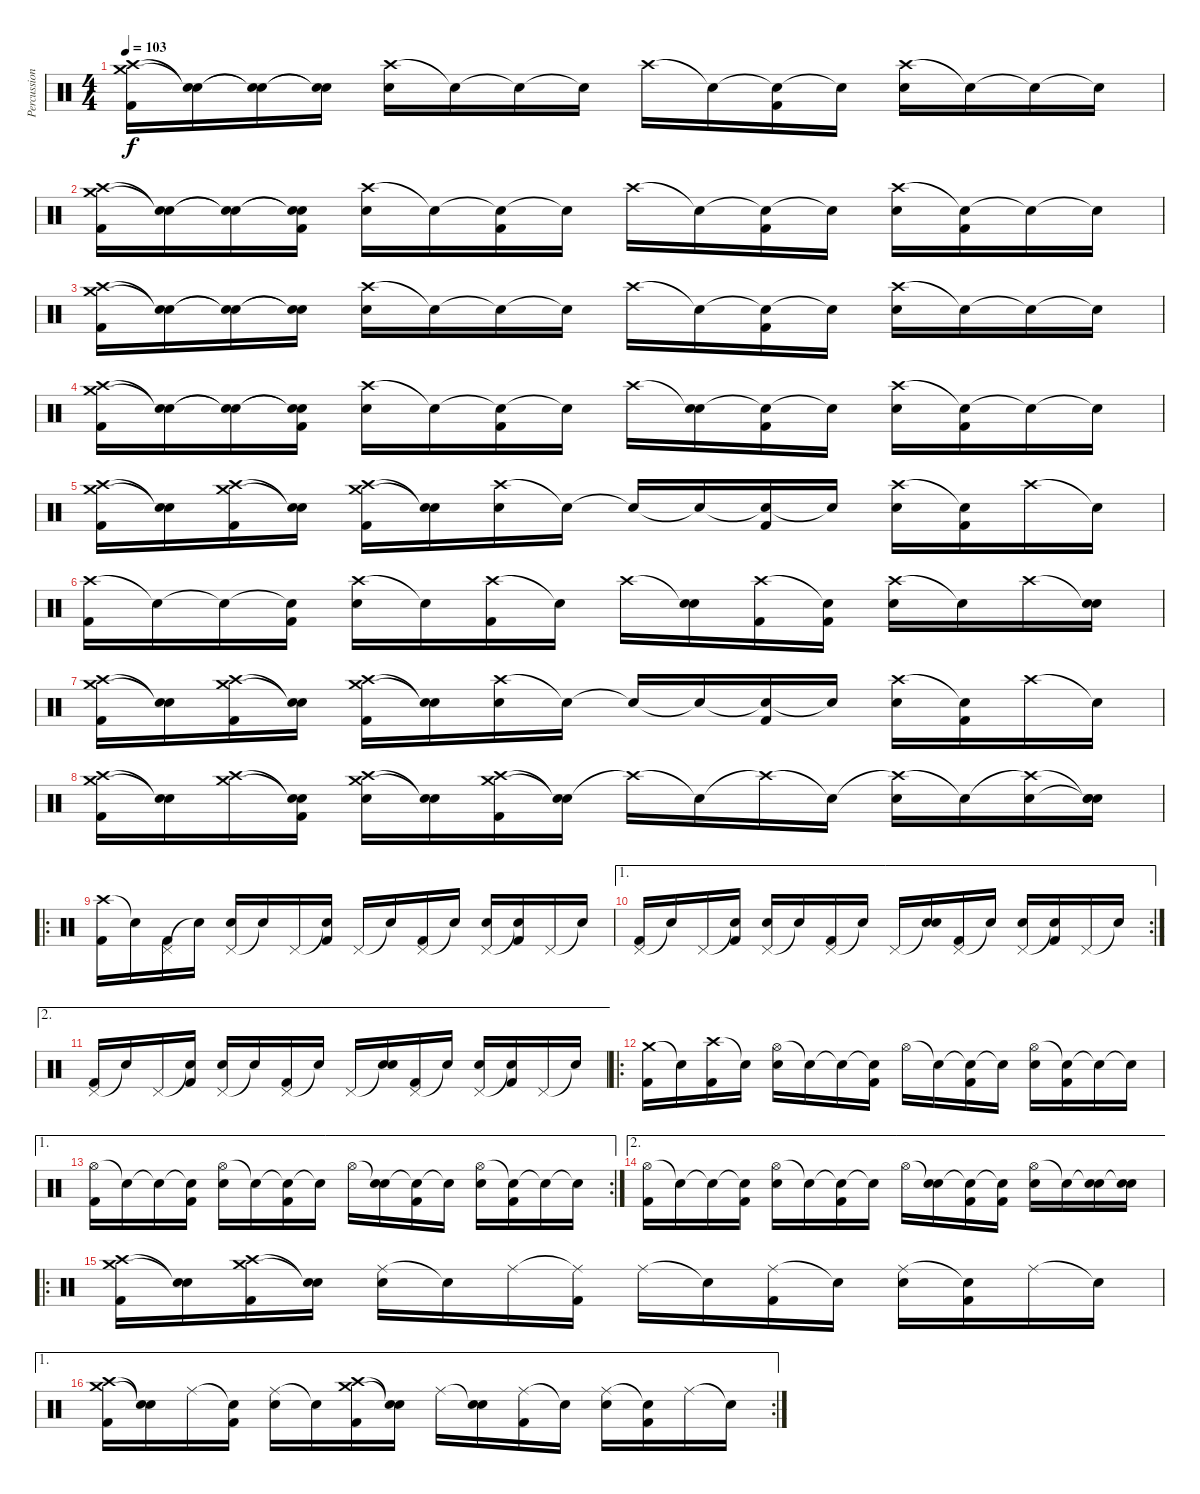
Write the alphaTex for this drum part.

\track ("Percussion" "Percussion") {instrument percussion}
\staff {score}
\articulation defaults
\ts (4 4)
\tempo 103
\clef neutral
\ks c
("Crash medium (hit)" "Crash high (hit)" "Kick (hit) 2").16{dy f} ("Snare (hit)"{t} "Snare (hit)"{t}).16 ("Snare (hit)"{t} "Snare (hit)"{t}).16 ("Snare (hit)"{t} "Snare (hit)"{t}).16 ("Crash high (hit)" "Snare (hit) 2").16 "Snare (hit)"{t}.16 "Snare (hit)"{t}.16 "Snare (hit)"{t}.16 "Crash high (hit)".16 "Snare (hit)"{t}.16 ("Snare (hit)"{t} "Kick (hit) 2").16 "Snare (hit)"{t}.16 ("Crash high (hit)" "Snare (hit) 2").16 "Snare (hit)"{t}.16 "Snare (hit)"{t}.16 "Snare (hit)"{t}.16 |
("Crash medium (hit)" "Crash high (hit)" "Kick (hit) 2").16 ("Snare (hit)"{t} "Snare (hit)"{t}).16 ("Snare (hit)"{t} "Snare (hit)"{t}).16 ("Snare (hit)"{t} "Snare (hit)"{t} "Kick (hit) 2").16 ("Crash high (hit)" "Snare (hit) 2").16 "Snare (hit)"{t}.16 ("Snare (hit)"{t} "Kick (hit) 2").16 "Snare (hit)"{t}.16 "Crash high (hit)".16 "Snare (hit)"{t}.16 ("Snare (hit)"{t} "Kick (hit) 2").16 "Snare (hit)"{t}.16 ("Crash high (hit)" "Snare (hit) 2").16 ("Snare (hit)"{t} "Kick (hit) 2").16 "Snare (hit)"{t}.16 "Snare (hit)"{t}.16 |
("Crash medium (hit)" "Crash high (hit)" "Kick (hit) 2").16 ("Snare (hit)"{t} "Snare (hit)"{t}).16 ("Snare (hit)"{t} "Snare (hit)"{t}).16 ("Snare (hit)"{t} "Snare (hit)"{t}).16 ("Crash high (hit)" "Snare (hit) 2").16 "Snare (hit)"{t}.16 "Snare (hit)"{t}.16 "Snare (hit)"{t}.16 "Crash high (hit)".16 "Snare (hit)"{t}.16 ("Snare (hit)"{t} "Kick (hit) 2").16 "Snare (hit)"{t}.16 ("Crash high (hit)" "Snare (hit) 2").16 "Snare (hit)"{t}.16 "Snare (hit)"{t}.16 "Snare (hit)"{t}.16 |
("Crash medium (hit)" "Crash high (hit)" "Kick (hit) 2").16 ("Snare (hit)"{t} "Snare (hit)"{t}).16 ("Snare (hit)"{t} "Snare (hit)"{t}).16 ("Snare (hit)"{t} "Snare (hit)"{t} "Kick (hit) 2").16 ("Crash high (hit)" "Snare (hit) 2").16 "Snare (hit)"{t}.16 ("Snare (hit)"{t} "Kick (hit) 2").16 "Snare (hit)"{t}.16 "Crash high (hit)".16 ("Snare (hit)"{t} "Snare (hit) 2").16 ("Snare (hit)"{t} "Kick (hit) 2").16 "Snare (hit)"{t}.16 ("Crash high (hit)" "Snare (hit) 2").16 ("Snare (hit)"{t} "Kick (hit) 2").16 "Snare (hit)"{t}.16 "Snare (hit)"{t}.16 |
("Crash medium (hit)" "Crash high (hit)" "Kick (hit) 2").16 ("Snare (hit)"{t} "Snare (hit)"{t}).16 ("Crash medium (hit)" "Crash high (hit)" "Kick (hit) 2").16 ("Snare (hit)"{t} "Snare (hit)"{t}).16 ("Crash medium (hit)" "Crash high (hit)" "Kick (hit) 2").16 ("Snare (hit)"{t} "Snare (hit)"{t}).16 ("Crash high (hit)" "Snare (hit) 2").16 "Snare (hit)"{t}.16 "Snare (hit)"{t}.16 "Snare (hit)"{t}.16 ("Snare (hit)"{t} "Kick (hit) 2").16 "Snare (hit)"{t}.16 ("Crash high (hit)" "Snare (hit) 2").16 ("Snare (hit)"{t} "Kick (hit) 2").16 "Crash high (hit)".16 "Snare (hit)"{t}.16 |
("Crash high (hit)" "Kick (hit) 2").16 "Snare (hit)"{t}.16 "Snare (hit)"{t}.16 ("Snare (hit)"{t} "Kick (hit) 2").16 ("Crash high (hit)" "Snare (hit) 2").16 "Snare (hit)"{t}.16 ("Crash high (hit)" "Kick (hit) 2").16 "Snare (hit)"{t}.16 "Crash high (hit)".16 ("Snare (hit)"{t} "Snare (hit) 2").16 ("Crash high (hit)" "Kick (hit) 2").16 ("Snare (hit)"{t} "Kick (hit) 2").16 ("Crash high (hit)" "Snare (hit) 2").16 "Snare (hit)"{t}.16 "Crash high (hit)".16 ("Snare (hit)"{t} "Snare (hit) 2").16 |
("Crash medium (hit)" "Crash high (hit)" "Kick (hit) 2").16 ("Snare (hit)"{t} "Snare (hit)"{t}).16 ("Crash medium (hit)" "Crash high (hit)" "Kick (hit) 2").16 ("Snare (hit)"{t} "Snare (hit)"{t}).16 ("Crash medium (hit)" "Crash high (hit)" "Kick (hit) 2").16 ("Snare (hit)"{t} "Snare (hit)"{t}).16 ("Crash high (hit)" "Snare (hit) 2").16 "Snare (hit)"{t}.16 "Snare (hit)"{t}.16 "Snare (hit)"{t}.16 ("Snare (hit)"{t} "Kick (hit) 2").16 "Snare (hit)"{t}.16 ("Crash high (hit)" "Snare (hit) 2").16 ("Snare (hit)"{t} "Kick (hit) 2").16 "Crash high (hit)".16 "Snare (hit)"{t}.16 |
("Crash medium (hit)" "Crash high (hit)" "Kick (hit) 2").16 ("Snare (hit)"{t} "Snare (hit)"{t}).16 ("Crash medium (hit)" "Crash high (hit)").16 ("Snare (hit)"{t} "Snare (hit)"{t} "Kick (hit) 2").16 ("Crash medium (hit)" "Crash high (hit)" "Snare (hit) 2").16 ("Snare (hit)"{t} "Snare (hit)"{t}).16 ("Crash medium (hit)" "Crash high (hit)" "Kick (hit) 2").16 ("Snare (hit)"{t} "Snare (hit)"{t}).16 "Crash high (hit)"{t}.16 "Snare (hit)"{t}.16 "Crash high (hit)"{t}.16 "Snare (hit)"{t}.16 ("Crash high (hit)"{t} "Snare (hit) 2").16 "Snare (hit)"{t}.16 ("Crash high (hit)"{t} "Snare (hit) 2").16 ("Snare (hit)"{t} "Snare (hit)"{t} "Snare (hit) 2").16 |
\ro
("Crash high (hit)" "Kick (hit) 2").16 "Snare (hit)"{t}.16 ("Pedal Hi-Hat (hit)" "Kick (hit) 2").16 "Snare (hit)"{t}.16 ("Pedal Hi-Hat (hit)" "Snare (hit) 2").16 "Snare (hit)"{t}.16 "Pedal Hi-Hat (hit)".16 ("Snare (hit)"{t} "Kick (hit) 2").16 "Pedal Hi-Hat (hit)".16 "Snare (hit)"{t}.16 ("Pedal Hi-Hat (hit)" "Kick (hit) 2").16 "Snare (hit)"{t}.16 ("Pedal Hi-Hat (hit)" "Snare (hit) 2").16 ("Snare (hit)"{t} "Kick (hit) 2").16 "Pedal Hi-Hat (hit)".16 "Snare (hit)"{t}.16 |
\ae 1
\rc 2
("Pedal Hi-Hat (hit)" "Kick (hit) 2").16 "Snare (hit)"{t}.16 "Pedal Hi-Hat (hit)".16 ("Snare (hit)"{t} "Kick (hit) 2").16 ("Pedal Hi-Hat (hit)" "Snare (hit) 2").16 "Snare (hit)"{t}.16 ("Pedal Hi-Hat (hit)" "Kick (hit) 2").16 "Snare (hit)"{t}.16 "Pedal Hi-Hat (hit)".16 ("Snare (hit)"{t} "Snare (hit) 2").16 ("Pedal Hi-Hat (hit)" "Kick (hit) 2").16 "Snare (hit)"{t}.16 ("Pedal Hi-Hat (hit)" "Snare (hit) 2").16 ("Snare (hit)"{t} "Kick (hit) 2").16 "Pedal Hi-Hat (hit)".16 "Snare (hit)"{t}.16 |
\ae 2
("Pedal Hi-Hat (hit)" "Kick (hit) 2").16 "Snare (hit)"{t}.16 "Pedal Hi-Hat (hit)".16 ("Snare (hit)"{t} "Kick (hit) 2").16 ("Pedal Hi-Hat (hit)" "Snare (hit) 2").16 "Snare (hit)"{t}.16 ("Pedal Hi-Hat (hit)" "Kick (hit) 2").16 "Snare (hit)"{t}.16 "Pedal Hi-Hat (hit)".16 ("Snare (hit)"{t} "Snare (hit) 2").16 ("Pedal Hi-Hat (hit)" "Kick (hit) 2").16 "Snare (hit)"{t}.16 ("Pedal Hi-Hat (hit)" "Snare (hit) 2").16 ("Snare (hit)"{t} "Kick (hit) 2").16 "Pedal Hi-Hat (hit)".16 "Snare (hit)"{t}.16 |
\ro
("Crash medium (hit)" "Kick (hit) 2").16 "Snare (hit)"{t}.16 ("Crash high (hit)" "Kick (hit) 2").16 "Snare (hit)"{t}.16 ("Hi-Hat (open)" "Snare (hit) 2").16 "Snare (hit)"{t}.16 "Snare (hit)"{t}.16 ("Snare (hit)"{t} "Kick (hit) 2").16 "Hi-Hat (open)".16 "Snare (hit)"{t}.16 ("Snare (hit)"{t} "Kick (hit) 2").16 "Snare (hit)"{t}.16 ("Hi-Hat (open)" "Snare (hit) 2").16 ("Snare (hit)"{t} "Kick (hit) 2").16 "Snare (hit)"{t}.16 "Snare (hit)"{t}.16 |
\ae 1
\rc 2
("Hi-Hat (open)" "Kick (hit) 2").16 "Snare (hit)"{t}.16 "Snare (hit)"{t}.16 ("Snare (hit)"{t} "Kick (hit) 2").16 ("Hi-Hat (open)" "Snare (hit) 2").16 "Snare (hit)"{t}.16 ("Snare (hit)"{t} "Kick (hit) 2").16 "Snare (hit)"{t}.16 "Hi-Hat (open)".16 ("Snare (hit)"{t} "Snare (hit) 2").16 ("Snare (hit)"{t} "Kick (hit) 2").16 "Snare (hit)"{t}.16 ("Hi-Hat (open)" "Snare (hit) 2").16 ("Snare (hit)"{t} "Kick (hit) 2").16 "Snare (hit)"{t}.16 "Snare (hit)"{t}.16 |
\ae 2
("Hi-Hat (open)" "Kick (hit) 2").16 "Snare (hit)"{t}.16 "Snare (hit)"{t}.16 ("Snare (hit)"{t} "Kick (hit) 2").16 ("Hi-Hat (open)" "Snare (hit) 2").16 "Snare (hit)"{t}.16 ("Snare (hit)"{t} "Kick (hit) 2").16 "Snare (hit)"{t}.16 "Hi-Hat (open)".16 ("Snare (hit)"{t} "Snare (hit) 2").16 ("Snare (hit)"{t} "Kick (hit) 2").16 ("Snare (hit)"{t} "Kick (hit) 2").16 ("Hi-Hat (open)" "Snare (hit) 2").16 "Snare (hit)"{t}.16 ("Snare (hit)"{t} "Snare (hit) 2").16 ("Snare (hit)"{t} "Snare (hit) 2").16 |
\ro
("Crash medium (hit)" "Crash high (hit)" "Kick (hit) 2").16 ("Snare (hit)"{t} "Snare (hit)"{t}).16 ("Crash medium (hit)" "Crash high (hit)" "Kick (hit) 2").16 ("Snare (hit)"{t} "Snare (hit)"{t}).16 ("Ride (middle)" "Snare (hit) 2").16 "Snare (hit)"{t}.16 "Ride (middle)".16 ("Ride (middle)"{t} "Kick (hit) 2").16 "Ride (middle)".16 "Snare (hit)"{t}.16 ("Ride (middle)" "Kick (hit) 2").16 "Snare (hit)"{t}.16 ("Ride (middle)" "Snare (hit) 2").16 ("Snare (hit)"{t} "Kick (hit) 2").16 "Ride (middle)".16 "Snare (hit)"{t}.16 |
\ae 1
\rc 2
("Crash medium (hit)" "Crash high (hit)" "Kick (hit) 2").16 ("Snare (hit)"{t} "Snare (hit)"{t}).16 "Ride (middle)".16 ("Snare (hit)"{t} "Kick (hit) 2").16 ("Ride (middle)" "Snare (hit) 2").16 "Snare (hit)"{t}.16 ("Crash medium (hit)" "Crash high (hit)" "Kick (hit) 2").16 ("Snare (hit)"{t} "Snare (hit)"{t}).16 "Ride (middle)".16 ("Snare (hit)"{t} "Snare (hit) 2").16 ("Ride (middle)" "Kick (hit) 2").16 "Snare (hit)"{t}.16 ("Ride (middle)" "Snare (hit) 2").16 ("Snare (hit)"{t} "Kick (hit) 2").16 "Ride (middle)".16 "Snare (hit)"{t}.16
